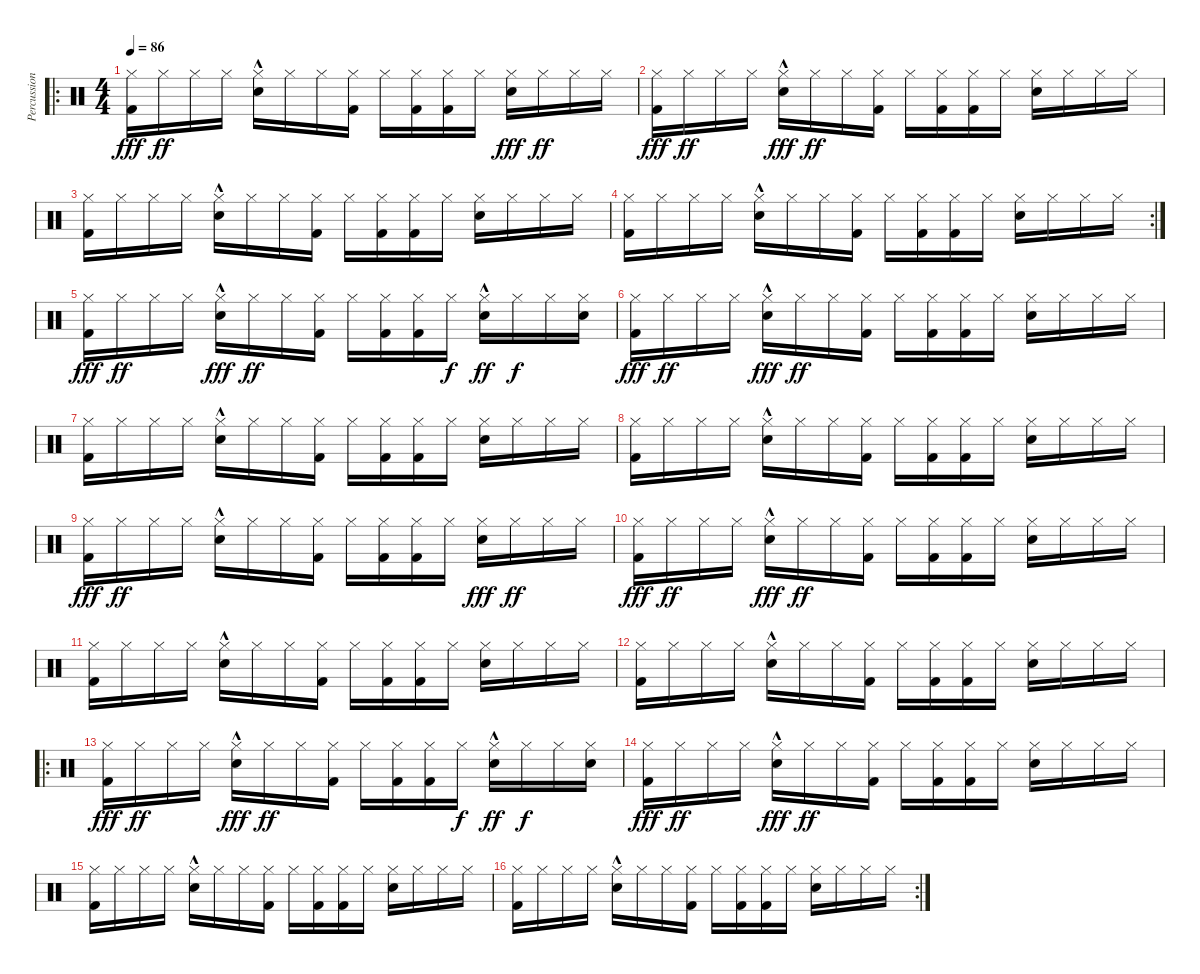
\track ("Percussion" "Percussion") {instrument percussion}
\staff {score}
\articulation defaults
\ro
\ts (4 4)
\tempo 86
\clef neutral
\ks c
("Hi-Hat (closed)" "Kick (hit) 2").16{dy fff} "Hi-Hat (closed)".16{dy ff} "Hi-Hat (closed)".16 "Hi-Hat (closed)".16 ("Hi-Hat (closed)" "Snare (hit) 2"{hac}).16 "Hi-Hat (closed)".16 "Hi-Hat (closed)".16 ("Hi-Hat (closed)" "Kick (hit) 2").16 "Hi-Hat (closed)".16 ("Hi-Hat (closed)" "Kick (hit) 2").16 ("Hi-Hat (closed)" "Kick (hit) 2").16 "Hi-Hat (closed)".16 ("Hi-Hat (closed)" "Snare (hit) 2").16{dy fff} "Hi-Hat (closed)".16{dy ff} "Hi-Hat (closed)".16 "Hi-Hat (closed)".16 |
("Hi-Hat (closed)" "Kick (hit) 2").16{dy fff} "Hi-Hat (closed)".16{dy ff} "Hi-Hat (closed)".16 "Hi-Hat (closed)".16 ("Hi-Hat (closed)" "Snare (hit) 2"{hac}).16{dy fff} "Hi-Hat (closed)".16{dy ff} "Hi-Hat (closed)".16 ("Hi-Hat (closed)" "Kick (hit) 2").16 "Hi-Hat (closed)".16 ("Hi-Hat (closed)" "Kick (hit) 2").16 ("Hi-Hat (closed)" "Kick (hit) 2").16 "Hi-Hat (closed)".16 ("Hi-Hat (closed)" "Snare (hit) 2").16 "Hi-Hat (closed)".16 "Hi-Hat (closed)".16 "Hi-Hat (closed)".16 |
("Hi-Hat (closed)" "Kick (hit) 2").16 "Hi-Hat (closed)".16 "Hi-Hat (closed)".16 "Hi-Hat (closed)".16 ("Snare (hit) 2"{hac} "Hi-Hat (closed)").16 "Hi-Hat (closed)".16 "Hi-Hat (closed)".16 ("Hi-Hat (closed)" "Kick (hit) 2").16 "Hi-Hat (closed)".16 ("Kick (hit) 2" "Hi-Hat (closed)").16 ("Kick (hit) 2" "Hi-Hat (closed)").16 "Hi-Hat (closed)".16 ("Hi-Hat (closed)" "Snare (hit) 2").16 "Hi-Hat (closed)".16 "Hi-Hat (closed)".16 "Hi-Hat (closed)".16 |
\rc 2
("Hi-Hat (closed)" "Kick (hit) 2").16 "Hi-Hat (closed)".16 "Hi-Hat (closed)".16 "Hi-Hat (closed)".16 ("Snare (hit) 2"{hac} "Hi-Hat (closed)").16 "Hi-Hat (closed)".16 "Hi-Hat (closed)".16 ("Hi-Hat (closed)" "Kick (hit) 2").16 "Hi-Hat (closed)".16 ("Kick (hit) 2" "Hi-Hat (closed)").16 ("Kick (hit) 2" "Hi-Hat (closed)").16 "Hi-Hat (closed)".16 ("Hi-Hat (closed)" "Snare (hit) 2").16 "Hi-Hat (closed)".16 "Hi-Hat (closed)".16 "Hi-Hat (closed)".16 |
("Hi-Hat (closed)" "Kick (hit) 2").16{dy fff} "Hi-Hat (closed)".16{dy ff} "Hi-Hat (closed)".16 "Hi-Hat (closed)".16 ("Hi-Hat (closed)" "Snare (hit) 2"{hac}).16{dy fff} "Hi-Hat (closed)".16{dy ff} "Hi-Hat (closed)".16 ("Hi-Hat (closed)" "Kick (hit) 2").16 "Hi-Hat (closed)".16 ("Hi-Hat (closed)" "Kick (hit) 2").16 ("Hi-Hat (closed)" "Kick (hit) 2").16 "Hi-Hat (closed)".16{dy f} ("Hi-Hat (closed)" "Snare (hit) 2"{hac}).16{dy ff} "Hi-Hat (closed)".16{dy f} "Hi-Hat (closed)".16 ("Hi-Hat (closed)" "Snare (hit) 2").16 |
("Hi-Hat (closed)" "Kick (hit) 2").16{dy fff} "Hi-Hat (closed)".16{dy ff} "Hi-Hat (closed)".16 "Hi-Hat (closed)".16 ("Hi-Hat (closed)" "Snare (hit) 2"{hac}).16{dy fff} "Hi-Hat (closed)".16{dy ff} "Hi-Hat (closed)".16 ("Hi-Hat (closed)" "Kick (hit) 2").16 "Hi-Hat (closed)".16 ("Hi-Hat (closed)" "Kick (hit) 2").16 ("Hi-Hat (closed)" "Kick (hit) 2").16 "Hi-Hat (closed)".16 ("Hi-Hat (closed)" "Snare (hit) 2").16 "Hi-Hat (closed)".16 "Hi-Hat (closed)".16 "Hi-Hat (closed)".16 |
("Hi-Hat (closed)" "Kick (hit) 2").16 "Hi-Hat (closed)".16 "Hi-Hat (closed)".16 "Hi-Hat (closed)".16 ("Snare (hit) 2"{hac} "Hi-Hat (closed)").16 "Hi-Hat (closed)".16 "Hi-Hat (closed)".16 ("Hi-Hat (closed)" "Kick (hit) 2").16 "Hi-Hat (closed)".16 ("Kick (hit) 2" "Hi-Hat (closed)").16 ("Kick (hit) 2" "Hi-Hat (closed)").16 "Hi-Hat (closed)".16 ("Hi-Hat (closed)" "Snare (hit) 2").16 "Hi-Hat (closed)".16 "Hi-Hat (closed)".16 "Hi-Hat (closed)".16 |
("Hi-Hat (closed)" "Kick (hit) 2").16 "Hi-Hat (closed)".16 "Hi-Hat (closed)".16 "Hi-Hat (closed)".16 ("Snare (hit) 2"{hac} "Hi-Hat (closed)").16 "Hi-Hat (closed)".16 "Hi-Hat (closed)".16 ("Hi-Hat (closed)" "Kick (hit) 2").16 "Hi-Hat (closed)".16 ("Kick (hit) 2" "Hi-Hat (closed)").16 ("Kick (hit) 2" "Hi-Hat (closed)").16 "Hi-Hat (closed)".16 ("Hi-Hat (closed)" "Snare (hit) 2").16 "Hi-Hat (closed)".16 "Hi-Hat (closed)".16 "Hi-Hat (closed)".16 |
("Hi-Hat (closed)" "Kick (hit) 2").16{dy fff} "Hi-Hat (closed)".16{dy ff} "Hi-Hat (closed)".16 "Hi-Hat (closed)".16 ("Hi-Hat (closed)" "Snare (hit) 2"{hac}).16 "Hi-Hat (closed)".16 "Hi-Hat (closed)".16 ("Hi-Hat (closed)" "Kick (hit) 2").16 "Hi-Hat (closed)".16 ("Hi-Hat (closed)" "Kick (hit) 2").16 ("Hi-Hat (closed)" "Kick (hit) 2").16 "Hi-Hat (closed)".16 ("Hi-Hat (closed)" "Snare (hit) 2").16{dy fff} "Hi-Hat (closed)".16{dy ff} "Hi-Hat (closed)".16 "Hi-Hat (closed)".16 |
("Hi-Hat (closed)" "Kick (hit) 2").16{dy fff} "Hi-Hat (closed)".16{dy ff} "Hi-Hat (closed)".16 "Hi-Hat (closed)".16 ("Hi-Hat (closed)" "Snare (hit) 2"{hac}).16{dy fff} "Hi-Hat (closed)".16{dy ff} "Hi-Hat (closed)".16 ("Hi-Hat (closed)" "Kick (hit) 2").16 "Hi-Hat (closed)".16 ("Hi-Hat (closed)" "Kick (hit) 2").16 ("Hi-Hat (closed)" "Kick (hit) 2").16 "Hi-Hat (closed)".16 ("Hi-Hat (closed)" "Snare (hit) 2").16 "Hi-Hat (closed)".16 "Hi-Hat (closed)".16 "Hi-Hat (closed)".16 |
("Hi-Hat (closed)" "Kick (hit) 2").16 "Hi-Hat (closed)".16 "Hi-Hat (closed)".16 "Hi-Hat (closed)".16 ("Snare (hit) 2"{hac} "Hi-Hat (closed)").16 "Hi-Hat (closed)".16 "Hi-Hat (closed)".16 ("Hi-Hat (closed)" "Kick (hit) 2").16 "Hi-Hat (closed)".16 ("Kick (hit) 2" "Hi-Hat (closed)").16 ("Kick (hit) 2" "Hi-Hat (closed)").16 "Hi-Hat (closed)".16 ("Hi-Hat (closed)" "Snare (hit) 2").16 "Hi-Hat (closed)".16 "Hi-Hat (closed)".16 "Hi-Hat (closed)".16 |
("Hi-Hat (closed)" "Kick (hit) 2").16 "Hi-Hat (closed)".16 "Hi-Hat (closed)".16 "Hi-Hat (closed)".16 ("Snare (hit) 2"{hac} "Hi-Hat (closed)").16 "Hi-Hat (closed)".16 "Hi-Hat (closed)".16 ("Hi-Hat (closed)" "Kick (hit) 2").16 "Hi-Hat (closed)".16 ("Kick (hit) 2" "Hi-Hat (closed)").16 ("Kick (hit) 2" "Hi-Hat (closed)").16 "Hi-Hat (closed)".16 ("Hi-Hat (closed)" "Snare (hit) 2").16 "Hi-Hat (closed)".16 "Hi-Hat (closed)".16 "Hi-Hat (closed)".16 |
\ro
("Hi-Hat (closed)" "Kick (hit) 2").16{dy fff} "Hi-Hat (closed)".16{dy ff} "Hi-Hat (closed)".16 "Hi-Hat (closed)".16 ("Hi-Hat (closed)" "Snare (hit) 2"{hac}).16{dy fff} "Hi-Hat (closed)".16{dy ff} "Hi-Hat (closed)".16 ("Hi-Hat (closed)" "Kick (hit) 2").16 "Hi-Hat (closed)".16 ("Hi-Hat (closed)" "Kick (hit) 2").16 ("Hi-Hat (closed)" "Kick (hit) 2").16 "Hi-Hat (closed)".16{dy f} ("Hi-Hat (closed)" "Snare (hit) 2"{hac}).16{dy ff} "Hi-Hat (closed)".16{dy f} "Hi-Hat (closed)".16 ("Hi-Hat (closed)" "Snare (hit) 2").16 |
("Hi-Hat (closed)" "Kick (hit) 2").16{dy fff} "Hi-Hat (closed)".16{dy ff} "Hi-Hat (closed)".16 "Hi-Hat (closed)".16 ("Hi-Hat (closed)" "Snare (hit) 2"{hac}).16{dy fff} "Hi-Hat (closed)".16{dy ff} "Hi-Hat (closed)".16 ("Hi-Hat (closed)" "Kick (hit) 2").16 "Hi-Hat (closed)".16 ("Hi-Hat (closed)" "Kick (hit) 2").16 ("Hi-Hat (closed)" "Kick (hit) 2").16 "Hi-Hat (closed)".16 ("Hi-Hat (closed)" "Snare (hit) 2").16 "Hi-Hat (closed)".16 "Hi-Hat (closed)".16 "Hi-Hat (closed)".16 |
("Hi-Hat (closed)" "Kick (hit) 2").16 "Hi-Hat (closed)".16 "Hi-Hat (closed)".16 "Hi-Hat (closed)".16 ("Snare (hit) 2"{hac} "Hi-Hat (closed)").16 "Hi-Hat (closed)".16 "Hi-Hat (closed)".16 ("Hi-Hat (closed)" "Kick (hit) 2").16 "Hi-Hat (closed)".16 ("Kick (hit) 2" "Hi-Hat (closed)").16 ("Kick (hit) 2" "Hi-Hat (closed)").16 "Hi-Hat (closed)".16 ("Hi-Hat (closed)" "Snare (hit) 2").16 "Hi-Hat (closed)".16 "Hi-Hat (closed)".16 "Hi-Hat (closed)".16 |
\rc 2
("Hi-Hat (closed)" "Kick (hit) 2").16 "Hi-Hat (closed)".16 "Hi-Hat (closed)".16 "Hi-Hat (closed)".16 ("Snare (hit) 2"{hac} "Hi-Hat (closed)").16 "Hi-Hat (closed)".16 "Hi-Hat (closed)".16 ("Hi-Hat (closed)" "Kick (hit) 2").16 "Hi-Hat (closed)".16 ("Kick (hit) 2" "Hi-Hat (closed)").16 ("Kick (hit) 2" "Hi-Hat (closed)").16 "Hi-Hat (closed)".16 ("Hi-Hat (closed)" "Snare (hit) 2").16 "Hi-Hat (closed)".16 "Hi-Hat (closed)".16 "Hi-Hat (closed)".16
